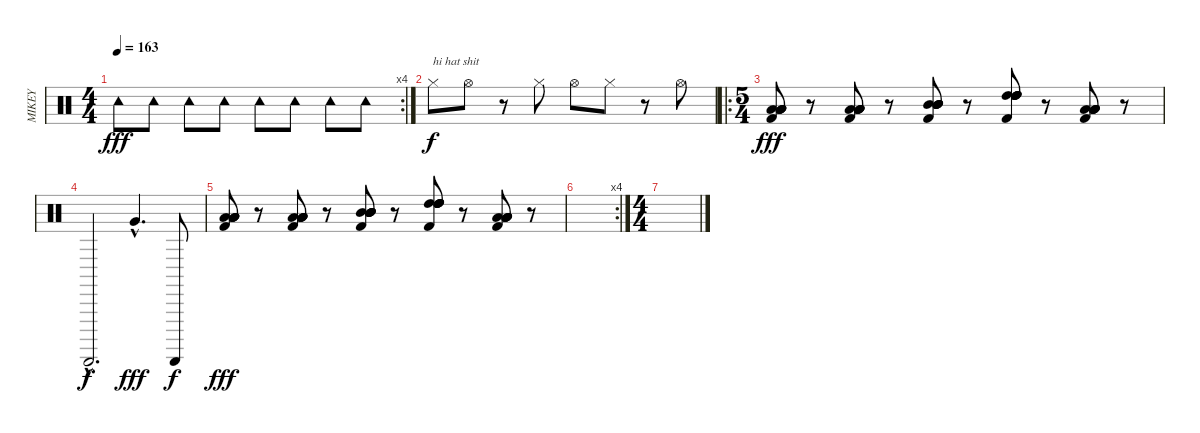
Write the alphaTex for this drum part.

\track ("MIKEY" "MIKEY") {instrument percussion}
\staff {score}
\articulation defaults
\rc 4
\ts (4 4)
\tempo 163
\clef neutral
\ks c "Tambourine (hit)".8{dy fff} "Tambourine (hit)".8 "Tambourine (hit)".8 "Tambourine (hit)".8 "Tambourine (hit)".8 "Tambourine (hit)".8 "Tambourine (hit)".8 "Tambourine (hit)".8
|
"Hi-Hat (closed)".8{txt "hi hat shit" dy f} "Hi-Hat (open)".8 r.8 "Hi-Hat (closed)".8 "Hi-Hat (open)".8 "Hi-Hat (closed)".8 r.8 "Hi-Hat (open)".8 |
\ro
\ts (5 4)
("Low Tom (hit)" "Low Tom (hit)" "Low Tom (hit)" "Low Tom (hit)" "Kick (hit) 2" "Low Tom (hit)").8{dy fff} r.8 ("Low Tom (hit)" "Low Tom (hit)" "Low Tom (hit)" "Low Tom (hit)" "Kick (hit) 2" "Low Tom (hit)").8 r.8 ("Mid Tom (hit)" "Mid Tom (hit)" "Mid Tom (hit)" "Kick (hit) 2" "Mid Tom (hit)" "Mid Tom (hit)").8 r.8 ("High Tom (hit)" "High Tom (hit)" "High Tom (hit)" "Kick (hit) 2" "High Tom (hit)" "High Tom (hit)").8 r.8 ("Low Tom (hit)" "Low Tom (hit)" "Low Tom (hit)" "Low Tom (hit)" "Kick (hit) 2" "Low Tom (hit)").8 r.8 |
"Guiro (scrap-return)"{hac}.2{d dy f} "Very Low Tom (hit)"{hac}.4{d dy fff} "Guiro (scrap-return)".8{dy f} |
("Low Tom (hit)" "Low Tom (hit)" "Low Tom (hit)" "Low Tom (hit)" "Kick (hit) 2" "Low Tom (hit)").8{dy fff} r.8 ("Low Tom (hit)" "Low Tom (hit)" "Low Tom (hit)" "Low Tom (hit)" "Kick (hit) 2" "Low Tom (hit)").8 r.8 ("Mid Tom (hit)" "Mid Tom (hit)" "Mid Tom (hit)" "Kick (hit) 2" "Mid Tom (hit)" "Mid Tom (hit)").8 r.8 ("High Tom (hit)" "High Tom (hit)" "High Tom (hit)" "Kick (hit) 2" "High Tom (hit)" "High Tom (hit)").8 r.8 ("Low Tom (hit)" "Low Tom (hit)" "Low Tom (hit)" "Low Tom (hit)" "Kick (hit) 2" "Low Tom (hit)").8 r.8 |
\rc 4
|
\ts (4 4)
